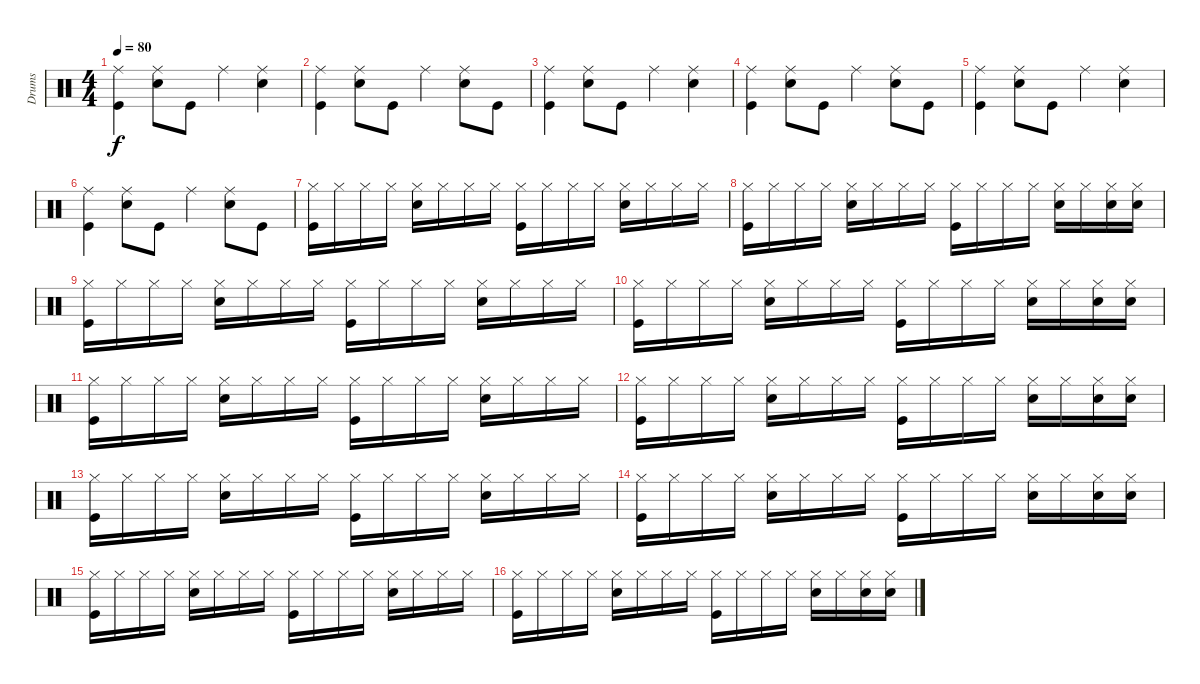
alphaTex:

\track ("Drums" "Drums") {instrument percussion}
\staff {score}
\articulation defaults
\ts (4 4)
\tempo 80
\clef neutral
\ks c
("Ride (middle)" "Kick (hit)").4{dy f} ("Ride (middle)" "Snare (hit) 2").8 "Kick (hit)".8 "Ride (middle)".4 ("Ride (middle)" "Snare (hit) 2").4 |
("Ride (middle)" "Kick (hit)").4 ("Ride (middle)" "Snare (hit) 2").8 "Kick (hit)".8 "Ride (middle)".4 ("Ride (middle)" "Snare (hit) 2").8 "Kick (hit)".8 |
("Ride (middle)" "Kick (hit)").4 ("Ride (middle)" "Snare (hit) 2").8 "Kick (hit)".8 "Ride (middle)".4 ("Ride (middle)" "Snare (hit) 2").4 |
("Ride (middle)" "Kick (hit)").4 ("Ride (middle)" "Snare (hit) 2").8 "Kick (hit)".8 "Ride (middle)".4 ("Ride (middle)" "Snare (hit) 2").8 "Kick (hit)".8 |
("Ride (middle)" "Kick (hit)").4 ("Ride (middle)" "Snare (hit) 2").8 "Kick (hit)".8 "Ride (middle)".4 ("Ride (middle)" "Snare (hit) 2").4 |
("Ride (middle)" "Kick (hit)").4 ("Ride (middle)" "Snare (hit) 2").8 "Kick (hit)".8 "Ride (middle)".4 ("Ride (middle)" "Snare (hit) 2").8 "Kick (hit)".8 |
("Hi-Hat (closed)" "Kick (hit)").16 "Hi-Hat (closed)".16 "Hi-Hat (closed)".16 "Hi-Hat (closed)".16 ("Hi-Hat (closed)" "Snare (hit) 2").16 "Hi-Hat (closed)".16 "Hi-Hat (closed)".16 "Hi-Hat (closed)".16 ("Hi-Hat (closed)" "Kick (hit)").16 "Hi-Hat (closed)".16 "Hi-Hat (closed)".16 "Hi-Hat (closed)".16 ("Hi-Hat (closed)" "Snare (hit) 2").16 "Hi-Hat (closed)".16 "Hi-Hat (closed)".16 "Hi-Hat (closed)".16 |
("Hi-Hat (closed)" "Kick (hit)").16 "Hi-Hat (closed)".16 "Hi-Hat (closed)".16 "Hi-Hat (closed)".16 ("Hi-Hat (closed)" "Snare (hit) 2").16 "Hi-Hat (closed)".16 "Hi-Hat (closed)".16 "Hi-Hat (closed)".16 ("Hi-Hat (closed)" "Kick (hit)").16 "Hi-Hat (closed)".16 "Hi-Hat (closed)".16 "Hi-Hat (closed)".16 ("Hi-Hat (closed)" "Snare (hit) 2").16 "Hi-Hat (closed)".16 ("Hi-Hat (closed)" "Snare (hit) 2").16 ("Hi-Hat (closed)" "Snare (hit) 2").16 |
("Hi-Hat (closed)" "Kick (hit)").16 "Hi-Hat (closed)".16 "Hi-Hat (closed)".16 "Hi-Hat (closed)".16 ("Hi-Hat (closed)" "Snare (hit) 2").16 "Hi-Hat (closed)".16 "Hi-Hat (closed)".16 "Hi-Hat (closed)".16 ("Hi-Hat (closed)" "Kick (hit)").16 "Hi-Hat (closed)".16 "Hi-Hat (closed)".16 "Hi-Hat (closed)".16 ("Hi-Hat (closed)" "Snare (hit) 2").16 "Hi-Hat (closed)".16 "Hi-Hat (closed)".16 "Hi-Hat (closed)".16 |
("Hi-Hat (closed)" "Kick (hit)").16 "Hi-Hat (closed)".16 "Hi-Hat (closed)".16 "Hi-Hat (closed)".16 ("Hi-Hat (closed)" "Snare (hit) 2").16 "Hi-Hat (closed)".16 "Hi-Hat (closed)".16 "Hi-Hat (closed)".16 ("Hi-Hat (closed)" "Kick (hit)").16 "Hi-Hat (closed)".16 "Hi-Hat (closed)".16 "Hi-Hat (closed)".16 ("Hi-Hat (closed)" "Snare (hit) 2").16 "Hi-Hat (closed)".16 ("Hi-Hat (closed)" "Snare (hit) 2").16 ("Hi-Hat (closed)" "Snare (hit) 2").16 |
("Hi-Hat (closed)" "Kick (hit)").16 "Hi-Hat (closed)".16 "Hi-Hat (closed)".16 "Hi-Hat (closed)".16 ("Hi-Hat (closed)" "Snare (hit) 2").16 "Hi-Hat (closed)".16 "Hi-Hat (closed)".16 "Hi-Hat (closed)".16 ("Hi-Hat (closed)" "Kick (hit)").16 "Hi-Hat (closed)".16 "Hi-Hat (closed)".16 "Hi-Hat (closed)".16 ("Hi-Hat (closed)" "Snare (hit) 2").16 "Hi-Hat (closed)".16 "Hi-Hat (closed)".16 "Hi-Hat (closed)".16 |
("Hi-Hat (closed)" "Kick (hit)").16 "Hi-Hat (closed)".16 "Hi-Hat (closed)".16 "Hi-Hat (closed)".16 ("Hi-Hat (closed)" "Snare (hit) 2").16 "Hi-Hat (closed)".16 "Hi-Hat (closed)".16 "Hi-Hat (closed)".16 ("Hi-Hat (closed)" "Kick (hit)").16 "Hi-Hat (closed)".16 "Hi-Hat (closed)".16 "Hi-Hat (closed)".16 ("Hi-Hat (closed)" "Snare (hit) 2").16 "Hi-Hat (closed)".16 ("Hi-Hat (closed)" "Snare (hit) 2").16 ("Hi-Hat (closed)" "Snare (hit) 2").16 |
("Hi-Hat (closed)" "Kick (hit)").16 "Hi-Hat (closed)".16 "Hi-Hat (closed)".16 "Hi-Hat (closed)".16 ("Hi-Hat (closed)" "Snare (hit) 2").16 "Hi-Hat (closed)".16 "Hi-Hat (closed)".16 "Hi-Hat (closed)".16 ("Hi-Hat (closed)" "Kick (hit)").16 "Hi-Hat (closed)".16 "Hi-Hat (closed)".16 "Hi-Hat (closed)".16 ("Hi-Hat (closed)" "Snare (hit) 2").16 "Hi-Hat (closed)".16 "Hi-Hat (closed)".16 "Hi-Hat (closed)".16 |
("Hi-Hat (closed)" "Kick (hit)").16 "Hi-Hat (closed)".16 "Hi-Hat (closed)".16 "Hi-Hat (closed)".16 ("Hi-Hat (closed)" "Snare (hit) 2").16 "Hi-Hat (closed)".16 "Hi-Hat (closed)".16 "Hi-Hat (closed)".16 ("Hi-Hat (closed)" "Kick (hit)").16 "Hi-Hat (closed)".16 "Hi-Hat (closed)".16 "Hi-Hat (closed)".16 ("Hi-Hat (closed)" "Snare (hit) 2").16 "Hi-Hat (closed)".16 ("Hi-Hat (closed)" "Snare (hit) 2").16 ("Hi-Hat (closed)" "Snare (hit) 2").16 |
("Hi-Hat (closed)" "Kick (hit)").16 "Hi-Hat (closed)".16 "Hi-Hat (closed)".16 "Hi-Hat (closed)".16 ("Hi-Hat (closed)" "Snare (hit) 2").16 "Hi-Hat (closed)".16 "Hi-Hat (closed)".16 "Hi-Hat (closed)".16 ("Hi-Hat (closed)" "Kick (hit)").16 "Hi-Hat (closed)".16 "Hi-Hat (closed)".16 "Hi-Hat (closed)".16 ("Hi-Hat (closed)" "Snare (hit) 2").16 "Hi-Hat (closed)".16 "Hi-Hat (closed)".16 "Hi-Hat (closed)".16 |
("Hi-Hat (closed)" "Kick (hit)").16 "Hi-Hat (closed)".16 "Hi-Hat (closed)".16 "Hi-Hat (closed)".16 ("Hi-Hat (closed)" "Snare (hit) 2").16 "Hi-Hat (closed)".16 "Hi-Hat (closed)".16 "Hi-Hat (closed)".16 ("Hi-Hat (closed)" "Kick (hit)").16 "Hi-Hat (closed)".16 "Hi-Hat (closed)".16 "Hi-Hat (closed)".16 ("Hi-Hat (closed)" "Snare (hit) 2").16 "Hi-Hat (closed)".16 ("Hi-Hat (closed)" "Snare (hit) 2").16 ("Hi-Hat (closed)" "Snare (hit) 2").16
